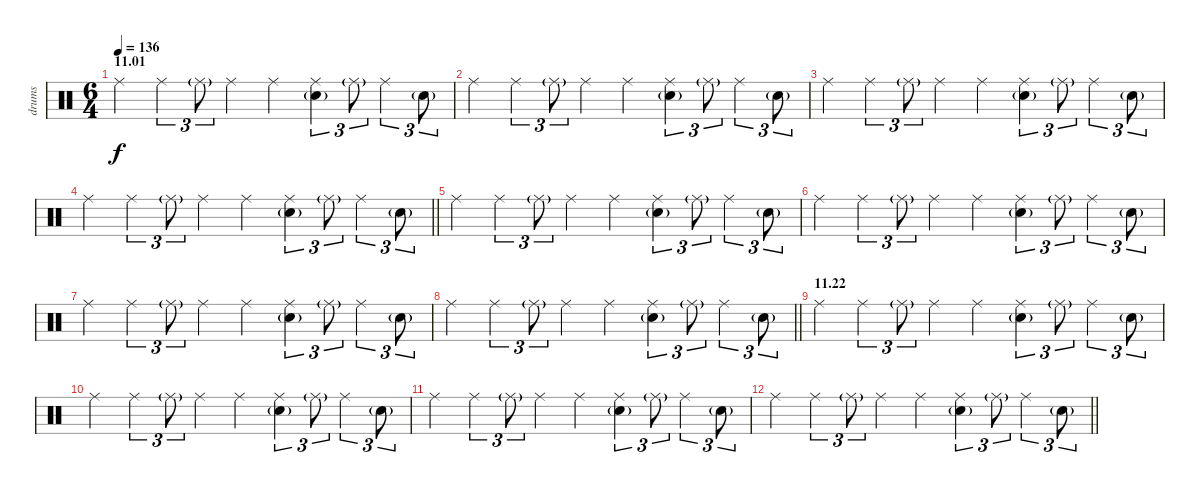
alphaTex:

\track ("drums" "drums") {instrument percussion}
\staff {score}
\articulation defaults
\ts (6 4)
\section ("" "11.01")
\tempo 136
\clef neutral
\ks c "Ride (middle)".4{dy f} "Ride (middle)".4{tu (3 2)} "Ride (middle)"{g}.8{tu (3 2)} "Ride (middle)".4 "Ride (middle)".4
("Ride (middle)" "Electric Snare (hit)"{g}).4{tu (3 2)} "Ride (middle)"{g}.8{tu (3 2)} "Ride (middle)".4{tu (3 2)} "Electric Snare (hit)"{g}.8{tu (3 2)} |
"Ride (middle)".4 "Ride (middle)".4{tu (3 2)} "Ride (middle)"{g}.8{tu (3 2)} "Ride (middle)".4 "Ride (middle)".4 ("Ride (middle)" "Electric Snare (hit)"{g}).4{tu (3 2)} "Ride (middle)"{g}.8{tu (3 2)} "Ride (middle)".4{tu (3 2)} "Electric Snare (hit)"{g}.8{tu (3 2)} |
"Ride (middle)".4 "Ride (middle)".4{tu (3 2)} "Ride (middle)"{g}.8{tu (3 2)} "Ride (middle)".4 "Ride (middle)".4 ("Ride (middle)" "Electric Snare (hit)"{g}).4{tu (3 2)} "Ride (middle)"{g}.8{tu (3 2)} "Ride (middle)".4{tu (3 2)} "Electric Snare (hit)"{g}.8{tu (3 2)} |
\barLineRight lightlight "Ride (middle)".4 "Ride (middle)".4{tu (3 2)} "Ride (middle)"{g}.8{tu (3 2)} "Ride (middle)".4 "Ride (middle)".4
("Ride (middle)" "Electric Snare (hit)"{g}).4{tu (3 2)} "Ride (middle)"{g}.8{tu (3 2)} "Ride (middle)".4{tu (3 2)} "Electric Snare (hit)"{g}.8{tu (3 2)} |
"Ride (middle)".4 "Ride (middle)".4{tu (3 2)} "Ride (middle)"{g}.8{tu (3 2)} "Ride (middle)".4 "Ride (middle)".4 ("Ride (middle)" "Electric Snare (hit)"{g}).4{tu (3 2)} "Ride (middle)"{g}.8{tu (3 2)} "Ride (middle)".4{tu (3 2)} "Electric Snare (hit)"{g}.8{tu (3 2)} |
"Ride (middle)".4 "Ride (middle)".4{tu (3 2)} "Ride (middle)"{g}.8{tu (3 2)} "Ride (middle)".4 "Ride (middle)".4 ("Ride (middle)" "Electric Snare (hit)"{g}).4{tu (3 2)} "Ride (middle)"{g}.8{tu (3 2)} "Ride (middle)".4{tu (3 2)} "Electric Snare (hit)"{g}.8{tu (3 2)} |
"Ride (middle)".4 "Ride (middle)".4{tu (3 2)} "Ride (middle)"{g}.8{tu (3 2)} "Ride (middle)".4 "Ride (middle)".4 ("Ride (middle)" "Electric Snare (hit)"{g}).4{tu (3 2)} "Ride (middle)"{g}.8{tu (3 2)} "Ride (middle)".4{tu (3 2)} "Electric Snare (hit)"{g}.8{tu (3 2)} |
\barLineRight lightlight "Ride (middle)".4 "Ride (middle)".4{tu (3 2)} "Ride (middle)"{g}.8{tu (3 2)} "Ride (middle)".4 "Ride (middle)".4
("Ride (middle)" "Electric Snare (hit)"{g}).4{tu (3 2)} "Ride (middle)"{g}.8{tu (3 2)} "Ride (middle)".4{tu (3 2)} "Electric Snare (hit)"{g}.8{tu (3 2)} |
\section ("" "11.22")
"Ride (middle)".4 "Ride (middle)".4{tu (3 2)} "Ride (middle)"{g}.8{tu (3 2)} "Ride (middle)".4 "Ride (middle)".4 ("Ride (middle)" "Electric Snare (hit)"{g}).4{tu (3 2)} "Ride (middle)"{g}.8{tu (3 2)} "Ride (middle)".4{tu (3 2)} "Electric Snare (hit)"{g}.8{tu (3 2)} |
"Ride (middle)".4 "Ride (middle)".4{tu (3 2)} "Ride (middle)"{g}.8{tu (3 2)} "Ride (middle)".4 "Ride (middle)".4 ("Ride (middle)" "Electric Snare (hit)"{g}).4{tu (3 2)} "Ride (middle)"{g}.8{tu (3 2)} "Ride (middle)".4{tu (3 2)} "Electric Snare (hit)"{g}.8{tu (3 2)} |
"Ride (middle)".4 "Ride (middle)".4{tu (3 2)} "Ride (middle)"{g}.8{tu (3 2)} "Ride (middle)".4 "Ride (middle)".4 ("Ride (middle)" "Electric Snare (hit)"{g}).4{tu (3 2)} "Ride (middle)"{g}.8{tu (3 2)} "Ride (middle)".4{tu (3 2)} "Electric Snare (hit)"{g}.8{tu (3 2)} |
\barLineRight lightlight "Ride (middle)".4 "Ride (middle)".4{tu (3 2)} "Ride (middle)"{g}.8{tu (3 2)} "Ride (middle)".4 "Ride (middle)".4
("Ride (middle)" "Electric Snare (hit)"{g}).4{tu (3 2)} "Ride (middle)"{g}.8{tu (3 2)} "Ride (middle)".4{tu (3 2)} "Electric Snare (hit)"{g}.8{tu (3 2)}
